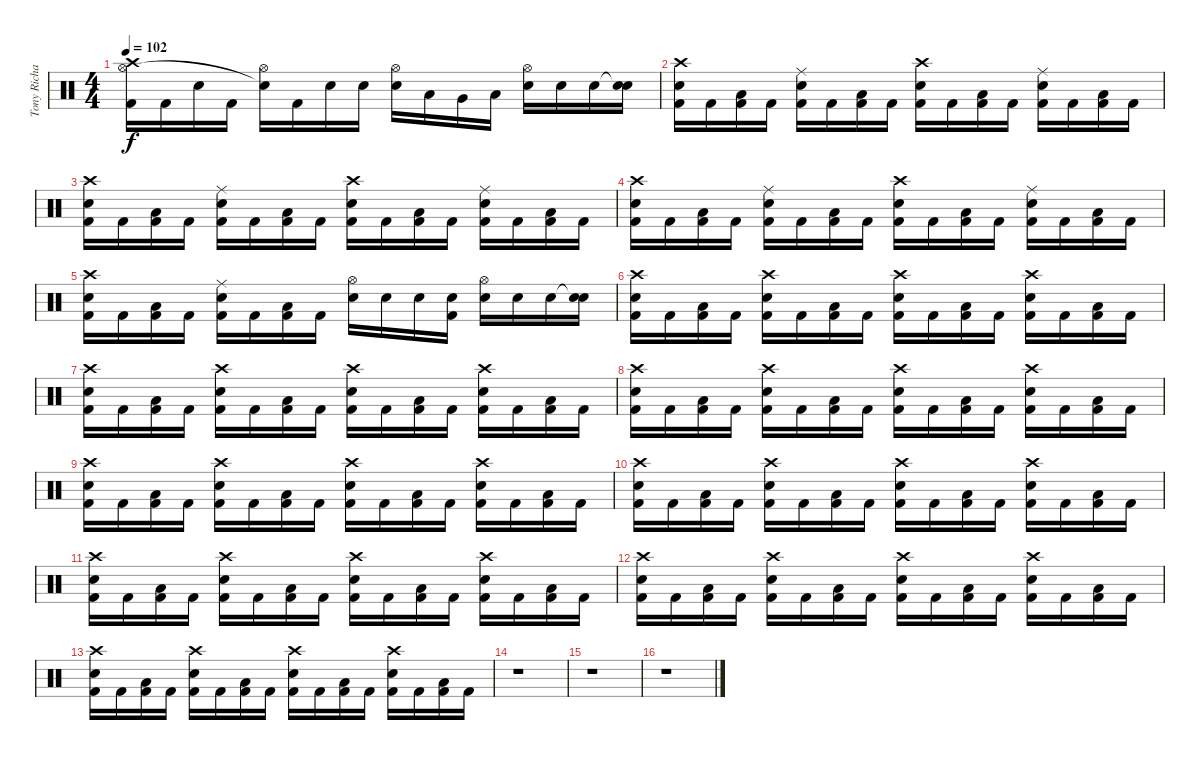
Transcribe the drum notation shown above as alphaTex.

\track ("Tony Richards (drums)" "Tony Richa") {instrument percussion}
\staff {score}
\articulation defaults
\ts (4 4)
\tempo 102
\clef neutral
\ks c
("Crash high (hit)" "Hi-Hat (open)" "Kick (hit) 2").16{dy f} "Kick (hit) 2".16 "Snare (hit) 2".16 "Kick (hit) 2".16 ("Hi-Hat (open)" "Snare (hit)"{t}).16 "Kick (hit) 2".16 "Snare (hit) 2".16 "Snare (hit) 2".16 ("Hi-Hat (open)" "Snare (hit) 2").16 "Low Tom (hit)".16 "Very Low Tom (hit)".16 "Low Floor Tom (hit)".16 ("Hi-Hat (open)" "Snare (hit) 2").16 "Snare (hit) 2".16 "Snare (hit) 2".16 ("Snare (hit)"{t} "Snare (hit) 2").16 |
("Crash high (hit)" "Snare (hit) 2" "Kick (hit) 2").16 "Kick (hit) 2".16 ("Low Floor Tom (hit)" "Kick (hit) 2").16 "Kick (hit) 2".16 ("Ride (middle)" "Snare (hit) 2" "Kick (hit) 2").16 "Kick (hit) 2".16 ("Low Floor Tom (hit)" "Kick (hit) 2").16 "Kick (hit) 2".16 ("Crash high (hit)" "Snare (hit) 2" "Kick (hit) 2").16 "Kick (hit) 2".16 ("Low Floor Tom (hit)" "Kick (hit) 2").16 "Kick (hit) 2".16 ("Ride (middle)" "Snare (hit) 2" "Kick (hit) 2").16 "Kick (hit) 2".16 ("Low Floor Tom (hit)" "Kick (hit) 2").16 "Kick (hit) 2".16 |
("Crash high (hit)" "Snare (hit) 2" "Kick (hit) 2").16 "Kick (hit) 2".16 ("Low Floor Tom (hit)" "Kick (hit) 2").16 "Kick (hit) 2".16 ("Ride (middle)" "Snare (hit) 2" "Kick (hit) 2").16 "Kick (hit) 2".16 ("Low Floor Tom (hit)" "Kick (hit) 2").16 "Kick (hit) 2".16 ("Crash high (hit)" "Snare (hit) 2" "Kick (hit) 2").16 "Kick (hit) 2".16 ("Low Floor Tom (hit)" "Kick (hit) 2").16 "Kick (hit) 2".16 ("Ride (middle)" "Snare (hit) 2" "Kick (hit) 2").16 "Kick (hit) 2".16 ("Low Floor Tom (hit)" "Kick (hit) 2").16 "Kick (hit) 2".16 |
("Crash high (hit)" "Snare (hit) 2" "Kick (hit) 2").16 "Kick (hit) 2".16 ("Low Floor Tom (hit)" "Kick (hit) 2").16 "Kick (hit) 2".16 ("Ride (middle)" "Snare (hit) 2" "Kick (hit) 2").16 "Kick (hit) 2".16 ("Low Floor Tom (hit)" "Kick (hit) 2").16 "Kick (hit) 2".16 ("Crash high (hit)" "Snare (hit) 2" "Kick (hit) 2").16 "Kick (hit) 2".16 ("Low Floor Tom (hit)" "Kick (hit) 2").16 "Kick (hit) 2".16 ("Ride (middle)" "Snare (hit) 2" "Kick (hit) 2").16 "Kick (hit) 2".16 ("Low Floor Tom (hit)" "Kick (hit) 2").16 "Kick (hit) 2".16 |
("Crash high (hit)" "Snare (hit) 2" "Kick (hit) 2").16 "Kick (hit) 2".16 ("Low Floor Tom (hit)" "Kick (hit) 2").16 "Kick (hit) 2".16 ("Ride (middle)" "Snare (hit) 2" "Kick (hit) 2").16 "Kick (hit) 2".16 ("Low Floor Tom (hit)" "Kick (hit) 2").16 "Kick (hit) 2".16 ("Hi-Hat (open)" "Snare (hit) 2").16 "Snare (hit) 2".16 "Snare (hit) 2".16 ("Snare (hit) 2" "Kick (hit) 2").16 ("Hi-Hat (open)" "Snare (hit) 2").16 "Snare (hit) 2".16 "Snare (hit) 2".16 ("Snare (hit)"{t} "Snare (hit) 2").16 |
("Crash high (hit)" "Snare (hit) 2" "Kick (hit) 2").16 "Kick (hit) 2".16 ("Low Floor Tom (hit)" "Kick (hit) 2").16 "Kick (hit) 2".16 ("Crash high (hit)" "Snare (hit) 2" "Kick (hit) 2").16 "Kick (hit) 2".16 ("Low Floor Tom (hit)" "Kick (hit) 2").16 "Kick (hit) 2".16 ("Crash high (hit)" "Snare (hit) 2" "Kick (hit) 2").16 "Kick (hit) 2".16 ("Low Floor Tom (hit)" "Kick (hit) 2").16 "Kick (hit) 2".16 ("Crash high (hit)" "Snare (hit) 2" "Kick (hit) 2").16 "Kick (hit) 2".16 ("Low Floor Tom (hit)" "Kick (hit) 2").16 "Kick (hit) 2".16 |
("Crash high (hit)" "Snare (hit) 2" "Kick (hit) 2").16 "Kick (hit) 2".16 ("Low Floor Tom (hit)" "Kick (hit) 2").16 "Kick (hit) 2".16 ("Crash high (hit)" "Snare (hit) 2" "Kick (hit) 2").16 "Kick (hit) 2".16 ("Low Floor Tom (hit)" "Kick (hit) 2").16 "Kick (hit) 2".16 ("Crash high (hit)" "Snare (hit) 2" "Kick (hit) 2").16 "Kick (hit) 2".16 ("Low Floor Tom (hit)" "Kick (hit) 2").16 "Kick (hit) 2".16 ("Crash high (hit)" "Snare (hit) 2" "Kick (hit) 2").16 "Kick (hit) 2".16 ("Low Floor Tom (hit)" "Kick (hit) 2").16 "Kick (hit) 2".16 |
("Crash high (hit)" "Snare (hit) 2" "Kick (hit) 2").16 "Kick (hit) 2".16 ("Low Floor Tom (hit)" "Kick (hit) 2").16 "Kick (hit) 2".16 ("Crash high (hit)" "Snare (hit) 2" "Kick (hit) 2").16 "Kick (hit) 2".16 ("Low Floor Tom (hit)" "Kick (hit) 2").16 "Kick (hit) 2".16 ("Crash high (hit)" "Snare (hit) 2" "Kick (hit) 2").16 "Kick (hit) 2".16 ("Low Floor Tom (hit)" "Kick (hit) 2").16 "Kick (hit) 2".16 ("Crash high (hit)" "Snare (hit) 2" "Kick (hit) 2").16 "Kick (hit) 2".16 ("Low Floor Tom (hit)" "Kick (hit) 2").16 "Kick (hit) 2".16 |
("Crash high (hit)" "Snare (hit) 2" "Kick (hit) 2").16 "Kick (hit) 2".16 ("Low Floor Tom (hit)" "Kick (hit) 2").16 "Kick (hit) 2".16 ("Crash high (hit)" "Snare (hit) 2" "Kick (hit) 2").16 "Kick (hit) 2".16 ("Low Floor Tom (hit)" "Kick (hit) 2").16 "Kick (hit) 2".16 ("Crash high (hit)" "Snare (hit) 2" "Kick (hit) 2").16 "Kick (hit) 2".16 ("Low Floor Tom (hit)" "Kick (hit) 2").16 "Kick (hit) 2".16 ("Crash high (hit)" "Snare (hit) 2" "Kick (hit) 2").16 "Kick (hit) 2".16 ("Low Floor Tom (hit)" "Kick (hit) 2").16 "Kick (hit) 2".16 |
("Crash high (hit)" "Snare (hit) 2" "Kick (hit) 2").16 "Kick (hit) 2".16 ("Low Floor Tom (hit)" "Kick (hit) 2").16 "Kick (hit) 2".16 ("Crash high (hit)" "Snare (hit) 2" "Kick (hit) 2").16 "Kick (hit) 2".16 ("Low Floor Tom (hit)" "Kick (hit) 2").16 "Kick (hit) 2".16 ("Crash high (hit)" "Snare (hit) 2" "Kick (hit) 2").16 "Kick (hit) 2".16 ("Low Floor Tom (hit)" "Kick (hit) 2").16 "Kick (hit) 2".16 ("Crash high (hit)" "Snare (hit) 2" "Kick (hit) 2").16 "Kick (hit) 2".16 ("Low Floor Tom (hit)" "Kick (hit) 2").16 "Kick (hit) 2".16 |
("Crash high (hit)" "Snare (hit) 2" "Kick (hit) 2").16 "Kick (hit) 2".16 ("Low Floor Tom (hit)" "Kick (hit) 2").16 "Kick (hit) 2".16 ("Crash high (hit)" "Snare (hit) 2" "Kick (hit) 2").16 "Kick (hit) 2".16 ("Low Floor Tom (hit)" "Kick (hit) 2").16 "Kick (hit) 2".16 ("Crash high (hit)" "Snare (hit) 2" "Kick (hit) 2").16 "Kick (hit) 2".16 ("Low Floor Tom (hit)" "Kick (hit) 2").16 "Kick (hit) 2".16 ("Crash high (hit)" "Snare (hit) 2" "Kick (hit) 2").16 "Kick (hit) 2".16 ("Low Floor Tom (hit)" "Kick (hit) 2").16 "Kick (hit) 2".16 |
("Crash high (hit)" "Snare (hit) 2" "Kick (hit) 2").16 "Kick (hit) 2".16 ("Low Floor Tom (hit)" "Kick (hit) 2").16 "Kick (hit) 2".16 ("Crash high (hit)" "Snare (hit) 2" "Kick (hit) 2").16 "Kick (hit) 2".16 ("Low Floor Tom (hit)" "Kick (hit) 2").16 "Kick (hit) 2".16 ("Crash high (hit)" "Snare (hit) 2" "Kick (hit) 2").16 "Kick (hit) 2".16 ("Low Floor Tom (hit)" "Kick (hit) 2").16 "Kick (hit) 2".16 ("Crash high (hit)" "Snare (hit) 2" "Kick (hit) 2").16 "Kick (hit) 2".16 ("Low Floor Tom (hit)" "Kick (hit) 2").16 "Kick (hit) 2".16 |
("Crash high (hit)" "Snare (hit) 2" "Kick (hit) 2").16 "Kick (hit) 2".16 ("Low Floor Tom (hit)" "Kick (hit) 2").16 "Kick (hit) 2".16 ("Crash high (hit)" "Snare (hit) 2" "Kick (hit) 2").16 "Kick (hit) 2".16 ("Low Floor Tom (hit)" "Kick (hit) 2").16 "Kick (hit) 2".16 ("Crash high (hit)" "Snare (hit) 2" "Kick (hit) 2").16 "Kick (hit) 2".16 ("Low Floor Tom (hit)" "Kick (hit) 2").16 "Kick (hit) 2".16 ("Crash high (hit)" "Snare (hit) 2" "Kick (hit) 2").16 "Kick (hit) 2".16 ("Low Floor Tom (hit)" "Kick (hit) 2").16 "Kick (hit) 2".16 |
r.1 |
r.1 |
r.1
